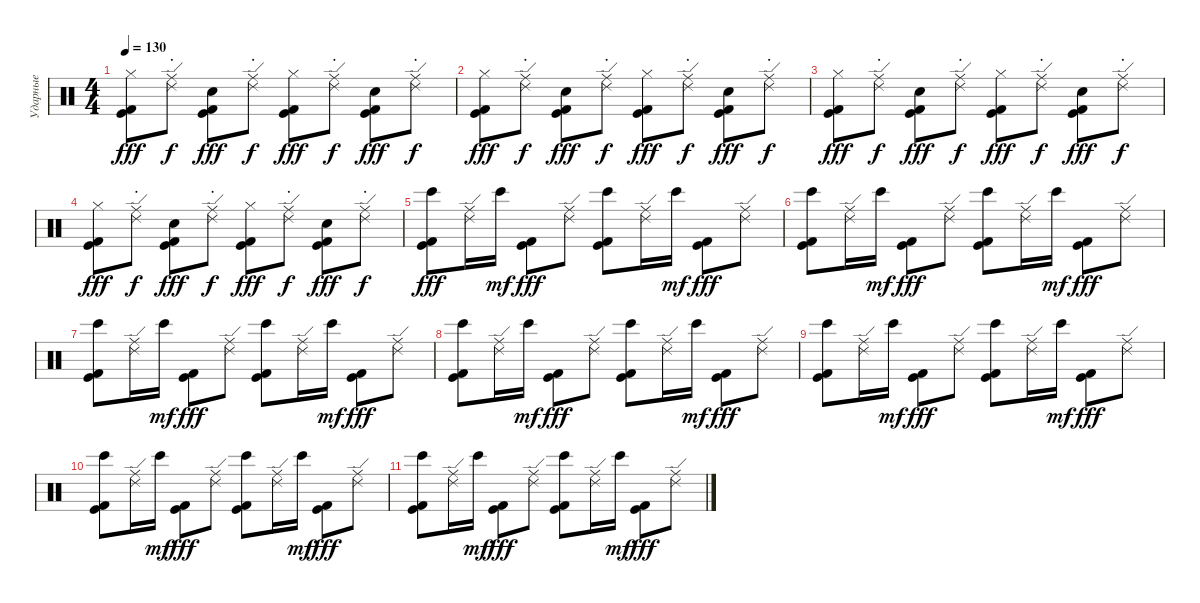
\track ("Ударные" "Ударные") {instrument percussion}
\staff {score}
\articulation defaults
\ts (4 4)
\tempo 130
\clef neutral
\ks c
("Hi-Hat (closed)" "Kick (hit) 2" "Kick (hit)").8{dy fff} ("Ride (edge) 2" "Ride (middle)"{st}).8{dy f} ("Hand Clap (hit)" "Kick (hit) 2" "Kick (hit)").8{dy fff} ("Ride (edge) 2" "Ride (middle)"{st}).8{dy f} ("Hi-Hat (closed)" "Kick (hit) 2" "Kick (hit)").8{dy fff} ("Ride (edge) 2" "Ride (middle)"{st}).8{dy f} ("Hand Clap (hit)" "Kick (hit) 2" "Kick (hit)").8{dy fff} ("Ride (edge) 2" "Ride (middle)"{st}).8{dy f} |
("Hi-Hat (closed)" "Kick (hit) 2" "Kick (hit)").8{dy fff} ("Ride (edge) 2" "Ride (middle)"{st}).8{dy f} ("Hand Clap (hit)" "Kick (hit) 2" "Kick (hit)").8{dy fff} ("Ride (edge) 2" "Ride (middle)"{st}).8{dy f} ("Hi-Hat (closed)" "Kick (hit) 2" "Kick (hit)").8{dy fff} ("Ride (edge) 2" "Ride (middle)"{st}).8{dy f} ("Hand Clap (hit)" "Kick (hit) 2" "Kick (hit)").8{dy fff} ("Ride (edge) 2" "Ride (middle)"{st}).8{dy f} |
("Hi-Hat (closed)" "Kick (hit) 2" "Kick (hit)").8{dy fff} ("Ride (edge) 2" "Ride (middle)"{st}).8{dy f} ("Hand Clap (hit)" "Kick (hit) 2" "Kick (hit)").8{dy fff} ("Ride (edge) 2" "Ride (middle)"{st}).8{dy f} ("Hi-Hat (closed)" "Kick (hit) 2" "Kick (hit)").8{dy fff} ("Ride (edge) 2" "Ride (middle)"{st}).8{dy f} ("Hand Clap (hit)" "Kick (hit) 2" "Kick (hit)").8{dy fff} ("Ride (edge) 2" "Ride (middle)"{st}).8{dy f} |
("Hi-Hat (closed)" "Kick (hit) 2" "Kick (hit)").8{dy fff} ("Ride (edge) 2" "Ride (middle)"{st}).8{dy f} ("Hand Clap (hit)" "Kick (hit) 2" "Kick (hit)").8{dy fff} ("Ride (edge) 2" "Ride (middle)"{st}).8{dy f} ("Hi-Hat (closed)" "Kick (hit) 2" "Kick (hit)").8{dy fff} ("Ride (edge) 2" "Ride (middle)"{st}).8{dy f} ("Hand Clap (hit)" "Kick (hit) 2" "Kick (hit)").8{dy fff} ("Ride (edge) 2" "Ride (middle)"{st}).8{dy f} |
("Bongo High (hit)" "Kick (hit) 2" "Kick (hit)").8{dy fff} ("Ride (middle)" "Ride (edge) 2").16 "Bongo High (hit)".16{dy mf} ("Kick (hit) 2" "Kick (hit)").8{dy fff} ("Ride (middle)" "Ride (edge) 2").8 ("Bongo High (hit)" "Kick (hit) 2" "Kick (hit)").8 ("Ride (middle)" "Ride (edge) 2").16 "Bongo High (hit)".16{dy mf} ("Kick (hit) 2" "Kick (hit)").8{dy fff} ("Ride (middle)" "Ride (edge) 2").8 |
("Bongo High (hit)" "Kick (hit) 2" "Kick (hit)").8 ("Ride (middle)" "Ride (edge) 2").16 "Bongo High (hit)".16{dy mf} ("Kick (hit) 2" "Kick (hit)").8{dy fff} ("Ride (middle)" "Ride (edge) 2").8 ("Bongo High (hit)" "Kick (hit) 2" "Kick (hit)").8 ("Ride (middle)" "Ride (edge) 2").16 "Bongo High (hit)".16{dy mf} ("Kick (hit) 2" "Kick (hit)").8{dy fff} ("Ride (middle)" "Ride (edge) 2").8 |
("Bongo High (hit)" "Kick (hit) 2" "Kick (hit)").8 ("Ride (middle)" "Ride (edge) 2").16 "Bongo High (hit)".16{dy mf} ("Kick (hit) 2" "Kick (hit)").8{dy fff} ("Ride (middle)" "Ride (edge) 2").8 ("Bongo High (hit)" "Kick (hit) 2" "Kick (hit)").8 ("Ride (middle)" "Ride (edge) 2").16 "Bongo High (hit)".16{dy mf} ("Kick (hit) 2" "Kick (hit)").8{dy fff} ("Ride (middle)" "Ride (edge) 2").8 |
("Bongo High (hit)" "Kick (hit) 2" "Kick (hit)").8 ("Ride (middle)" "Ride (edge) 2").16 "Bongo High (hit)".16{dy mf} ("Kick (hit) 2" "Kick (hit)").8{dy fff} ("Ride (middle)" "Ride (edge) 2").8 ("Bongo High (hit)" "Kick (hit) 2" "Kick (hit)").8 ("Ride (middle)" "Ride (edge) 2").16 "Bongo High (hit)".16{dy mf} ("Kick (hit) 2" "Kick (hit)").8{dy fff} ("Ride (middle)" "Ride (edge) 2").8 |
("Bongo High (hit)" "Kick (hit) 2" "Kick (hit)").8 ("Ride (middle)" "Ride (edge) 2").16 "Bongo High (hit)".16{dy mf} ("Kick (hit) 2" "Kick (hit)").8{dy fff} ("Ride (middle)" "Ride (edge) 2").8 ("Bongo High (hit)" "Kick (hit) 2" "Kick (hit)").8 ("Ride (middle)" "Ride (edge) 2").16 "Bongo High (hit)".16{dy mf} ("Kick (hit) 2" "Kick (hit)").8{dy fff} ("Ride (middle)" "Ride (edge) 2").8 |
("Bongo High (hit)" "Kick (hit) 2" "Kick (hit)").8 ("Ride (middle)" "Ride (edge) 2").16 "Bongo High (hit)".16{dy mf} ("Kick (hit) 2" "Kick (hit)").8{dy fff} ("Ride (middle)" "Ride (edge) 2").8 ("Bongo High (hit)" "Kick (hit) 2" "Kick (hit)").8 ("Ride (middle)" "Ride (edge) 2").16 "Bongo High (hit)".16{dy mf} ("Kick (hit) 2" "Kick (hit)").8{dy fff} ("Ride (middle)" "Ride (edge) 2").8 |
("Bongo High (hit)" "Kick (hit) 2" "Kick (hit)").8 ("Ride (middle)" "Ride (edge) 2").16 "Bongo High (hit)".16{dy mf} ("Kick (hit) 2" "Kick (hit)").8{dy fff} ("Ride (middle)" "Ride (edge) 2").8 ("Bongo High (hit)" "Kick (hit) 2" "Kick (hit)").8 ("Ride (middle)" "Ride (edge) 2").16 "Bongo High (hit)".16{dy mf} ("Kick (hit) 2" "Kick (hit)").8{dy fff} ("Ride (middle)" "Ride (edge) 2").8
